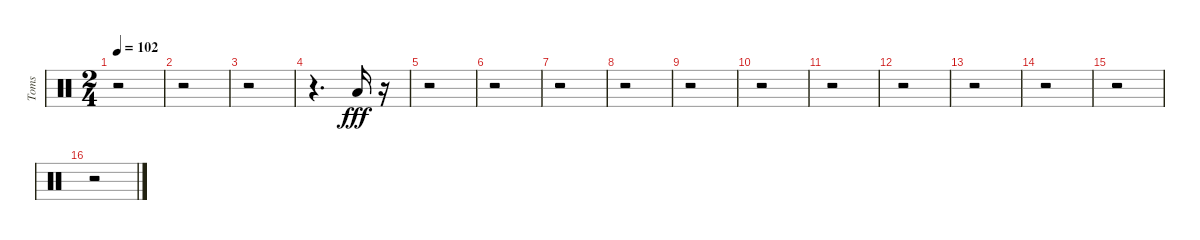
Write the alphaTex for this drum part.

\track ("Toms" "Toms") {instrument percussion}
\staff {score}
\articulation defaults
\ts (2 4)
\tempo 102
\clef neutral
\ks c
r.2{dy fff} |
r.2 |
r.2 |
r.4{d} "Low Floor Tom (hit)".16 r.16 |
r.2 |
r.2 |
r.2 |
r.2 |
r.2 |
r.2 |
r.2 |
r.2 |
r.2 |
r.2 |
r.2 |
r.2
